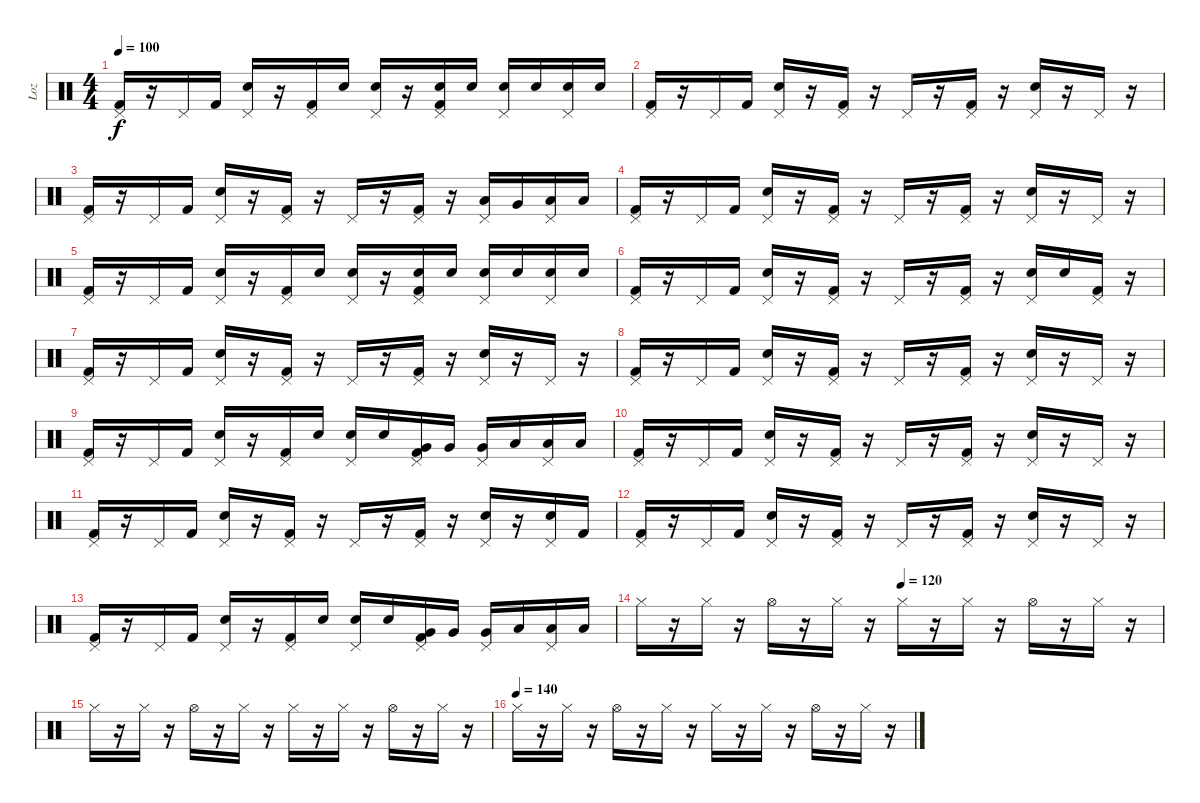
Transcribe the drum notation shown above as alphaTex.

\track ("Loz" "Loz") {instrument percussion}
\staff {score}
\articulation defaults
\ts (4 4)
\tempo 100
\clef neutral
\ks c
("Pedal Hi-Hat (hit)" "Kick (hit) 2").16{dy f} r.16 "Pedal Hi-Hat (hit)".16 "Kick (hit) 2".16 ("Pedal Hi-Hat (hit)" "Electric Snare (hit)").16 r.16 ("Pedal Hi-Hat (hit)" "Kick (hit) 2").16 "Electric Snare (hit)".16 ("Pedal Hi-Hat (hit)" "Electric Snare (hit)").16 r.16 ("Pedal Hi-Hat (hit)" "Electric Snare (hit)" "Kick (hit) 2").16 "Electric Snare (hit)".16 ("Pedal Hi-Hat (hit)" "Electric Snare (hit)").16 "Electric Snare (hit)".16 ("Pedal Hi-Hat (hit)" "Electric Snare (hit)").16 "Electric Snare (hit)".16 |
("Pedal Hi-Hat (hit)" "Kick (hit) 2").16 r.16 "Pedal Hi-Hat (hit)".16 "Kick (hit) 2".16 ("Pedal Hi-Hat (hit)" "Electric Snare (hit)").16 r.16 ("Pedal Hi-Hat (hit)" "Kick (hit) 2").16 r.16 "Pedal Hi-Hat (hit)".16 r.16 ("Pedal Hi-Hat (hit)" "Kick (hit) 2").16 r.16 ("Pedal Hi-Hat (hit)" "Electric Snare (hit)").16 r.16 "Pedal Hi-Hat (hit)".16 r.16 |
("Pedal Hi-Hat (hit)" "Kick (hit) 2").16 r.16 "Pedal Hi-Hat (hit)".16 "Kick (hit) 2".16 ("Pedal Hi-Hat (hit)" "Electric Snare (hit)").16 r.16 ("Pedal Hi-Hat (hit)" "Kick (hit) 2").16 r.16 "Pedal Hi-Hat (hit)".16 r.16 ("Pedal Hi-Hat (hit)" "Kick (hit) 2").16 r.16 ("Pedal Hi-Hat (hit)" "Low Tom (hit)").16 "Very Low Tom (hit)".16 ("Pedal Hi-Hat (hit)" "Low Floor Tom (hit)").16 "Low Floor Tom (hit)".16 |
("Pedal Hi-Hat (hit)" "Kick (hit) 2").16 r.16 "Pedal Hi-Hat (hit)".16 "Kick (hit) 2".16 ("Pedal Hi-Hat (hit)" "Electric Snare (hit)").16 r.16 ("Pedal Hi-Hat (hit)" "Kick (hit) 2").16 r.16 "Pedal Hi-Hat (hit)".16 r.16 ("Pedal Hi-Hat (hit)" "Kick (hit) 2").16 r.16 ("Pedal Hi-Hat (hit)" "Electric Snare (hit)").16 r.16 "Pedal Hi-Hat (hit)".16 r.16 |
("Pedal Hi-Hat (hit)" "Kick (hit) 2").16 r.16 "Pedal Hi-Hat (hit)".16 "Kick (hit) 2".16 ("Pedal Hi-Hat (hit)" "Electric Snare (hit)").16 r.16 ("Pedal Hi-Hat (hit)" "Kick (hit) 2").16 "Electric Snare (hit)".16 ("Pedal Hi-Hat (hit)" "Electric Snare (hit)").16 r.16 ("Pedal Hi-Hat (hit)" "Electric Snare (hit)" "Kick (hit) 2").16 "Electric Snare (hit)".16 ("Pedal Hi-Hat (hit)" "Electric Snare (hit)").16 "Electric Snare (hit)".16 ("Pedal Hi-Hat (hit)" "Electric Snare (hit)").16 "Electric Snare (hit)".16 |
("Pedal Hi-Hat (hit)" "Kick (hit) 2").16 r.16 "Pedal Hi-Hat (hit)".16 "Kick (hit) 2".16 ("Pedal Hi-Hat (hit)" "Electric Snare (hit)").16 r.16 ("Pedal Hi-Hat (hit)" "Kick (hit) 2").16 r.16 "Pedal Hi-Hat (hit)".16 r.16 ("Pedal Hi-Hat (hit)" "Kick (hit) 2").16 r.16 ("Pedal Hi-Hat (hit)" "Electric Snare (hit)").16 "Electric Snare (hit)".16 ("Pedal Hi-Hat (hit)" "Kick (hit) 2").16 r.16 |
("Pedal Hi-Hat (hit)" "Kick (hit) 2").16 r.16 "Pedal Hi-Hat (hit)".16 "Kick (hit) 2".16 ("Pedal Hi-Hat (hit)" "Electric Snare (hit)").16 r.16 ("Pedal Hi-Hat (hit)" "Kick (hit) 2").16 r.16 "Pedal Hi-Hat (hit)".16 r.16 ("Pedal Hi-Hat (hit)" "Kick (hit) 2").16 r.16 ("Pedal Hi-Hat (hit)" "Electric Snare (hit)").16 r.16 "Pedal Hi-Hat (hit)".16 r.16 |
("Pedal Hi-Hat (hit)" "Kick (hit) 2").16 r.16 "Pedal Hi-Hat (hit)".16 "Kick (hit) 2".16 ("Pedal Hi-Hat (hit)" "Electric Snare (hit)").16 r.16 ("Pedal Hi-Hat (hit)" "Kick (hit) 2").16 r.16 "Pedal Hi-Hat (hit)".16 r.16 ("Pedal Hi-Hat (hit)" "Kick (hit) 2").16 r.16 ("Pedal Hi-Hat (hit)" "Electric Snare (hit)").16 r.16 "Pedal Hi-Hat (hit)".16 r.16 |
("Pedal Hi-Hat (hit)" "Kick (hit) 2").16 r.16 "Pedal Hi-Hat (hit)".16 "Kick (hit) 2".16 ("Pedal Hi-Hat (hit)" "Electric Snare (hit)").16 r.16 ("Pedal Hi-Hat (hit)" "Kick (hit) 2").16 "Electric Snare (hit)".16 ("Pedal Hi-Hat (hit)" "Electric Snare (hit)").16 "Electric Snare (hit)".16 ("Pedal Hi-Hat (hit)" "Very Low Tom (hit)" "Kick (hit) 2").16 "Very Low Tom (hit)".16 ("Pedal Hi-Hat (hit)" "Very Low Tom (hit)").16 "Low Floor Tom (hit)".16 ("Pedal Hi-Hat (hit)" "Low Floor Tom (hit)").16 "Low Floor Tom (hit)".16 |
("Pedal Hi-Hat (hit)" "Kick (hit) 2").16 r.16 "Pedal Hi-Hat (hit)".16 "Kick (hit) 2".16 ("Pedal Hi-Hat (hit)" "Electric Snare (hit)").16 r.16 ("Pedal Hi-Hat (hit)" "Kick (hit) 2").16 r.16 "Pedal Hi-Hat (hit)".16 r.16 ("Pedal Hi-Hat (hit)" "Kick (hit) 2").16 r.16 ("Pedal Hi-Hat (hit)" "Electric Snare (hit)").16 r.16 "Pedal Hi-Hat (hit)".16 r.16 |
("Pedal Hi-Hat (hit)" "Kick (hit) 2").16 r.16 "Pedal Hi-Hat (hit)".16 "Kick (hit) 2".16 ("Pedal Hi-Hat (hit)" "Electric Snare (hit)").16 r.16 ("Pedal Hi-Hat (hit)" "Kick (hit) 2").16 r.16 "Pedal Hi-Hat (hit)".16 r.16 ("Pedal Hi-Hat (hit)" "Kick (hit) 2").16 r.16 ("Pedal Hi-Hat (hit)" "Electric Snare (hit)").16 r.16 ("Pedal Hi-Hat (hit)" "Electric Snare (hit)").16 "Kick (hit) 2".16 |
("Pedal Hi-Hat (hit)" "Kick (hit) 2").16 r.16 "Pedal Hi-Hat (hit)".16 "Kick (hit) 2".16 ("Pedal Hi-Hat (hit)" "Electric Snare (hit)").16 r.16 ("Pedal Hi-Hat (hit)" "Kick (hit) 2").16 r.16 "Pedal Hi-Hat (hit)".16 r.16 ("Pedal Hi-Hat (hit)" "Kick (hit) 2").16 r.16 ("Pedal Hi-Hat (hit)" "Electric Snare (hit)").16 r.16 "Pedal Hi-Hat (hit)".16 r.16 |
("Pedal Hi-Hat (hit)" "Kick (hit) 2").16 r.16 "Pedal Hi-Hat (hit)".16 "Kick (hit) 2".16 ("Pedal Hi-Hat (hit)" "Electric Snare (hit)").16 r.16 ("Pedal Hi-Hat (hit)" "Kick (hit) 2").16 "Electric Snare (hit)".16 ("Pedal Hi-Hat (hit)" "Electric Snare (hit)").16 "Electric Snare (hit)".16 ("Pedal Hi-Hat (hit)" "Very Low Tom (hit)" "Kick (hit) 2").16 "Very Low Tom (hit)".16 ("Pedal Hi-Hat (hit)" "Very Low Tom (hit)").16 "Low Floor Tom (hit)".16 ("Pedal Hi-Hat (hit)" "Low Floor Tom (hit)").16 "Low Floor Tom (hit)".16 |
\tempo (120 0.5)
"Hi-Hat (closed)".16 r.16 "Hi-Hat (closed)".16 r.16 "Hi-Hat (open)".16 r.16 "Hi-Hat (closed)".16 r.16 "Hi-Hat (closed)".16 r.16 "Hi-Hat (closed)".16 r.16 "Hi-Hat (open)".16 r.16 "Hi-Hat (closed)".16 r.16 |
"Hi-Hat (closed)".16 r.16 "Hi-Hat (closed)".16 r.16 "Hi-Hat (open)".16 r.16 "Hi-Hat (closed)".16 r.16 "Hi-Hat (closed)".16 r.16 "Hi-Hat (closed)".16 r.16 "Hi-Hat (open)".16 r.16 "Hi-Hat (closed)".16 r.16 |
\tempo (140)
"Hi-Hat (closed)".16 r.16 "Hi-Hat (closed)".16 r.16 "Hi-Hat (open)".16 r.16 "Hi-Hat (closed)".16 r.16 "Hi-Hat (closed)".16 r.16 "Hi-Hat (closed)".16 r.16 "Hi-Hat (open)".16 r.16 "Hi-Hat (closed)".16 r.16
